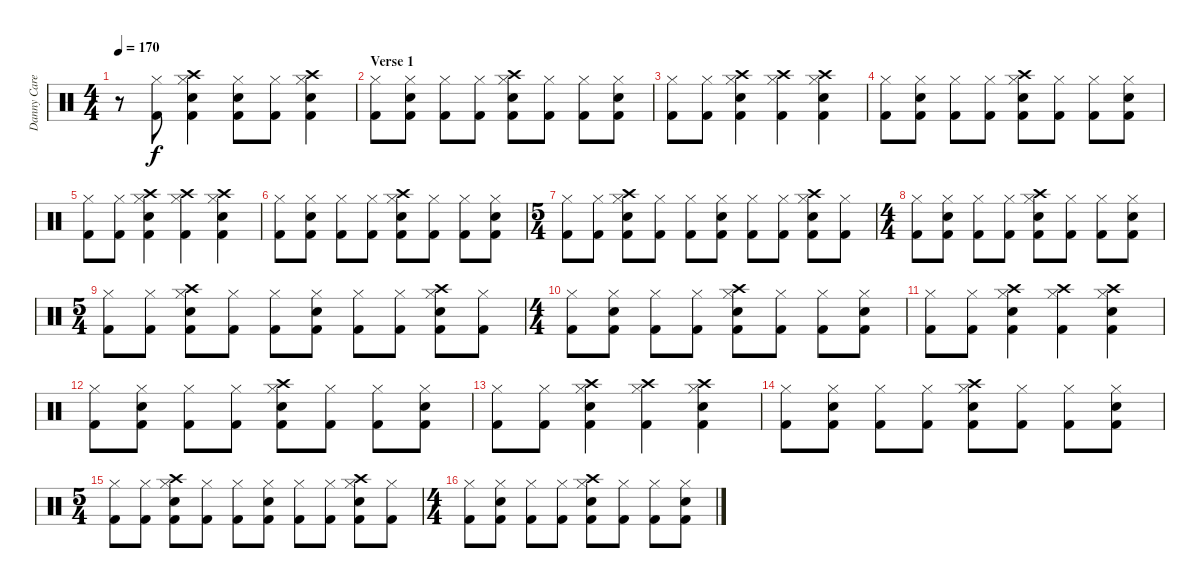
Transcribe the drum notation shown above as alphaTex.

\track ("Danny Carey" "Danny Care") {instrument percussion}
\staff {score}
\articulation defaults
\ts (4 4)
\tempo 170
\clef neutral
\ks c
r.8{dy f} ("Hi-Hat (closed)" "Kick (hit) 2").8 ("Crash high (hit)" "Hi-Hat (closed)" "Snare (hit) 2" "Kick (hit) 2").4 ("Hi-Hat (closed)" "Snare (hit) 2" "Kick (hit) 2").8 ("Hi-Hat (closed)" "Kick (hit) 2").8 ("Crash high (hit)" "Hi-Hat (closed)" "Snare (hit) 2" "Kick (hit) 2").4 |
\section ("" "Verse 1")
("Hi-Hat (closed)" "Kick (hit) 2").8 ("Hi-Hat (closed)" "Snare (hit) 2" "Kick (hit) 2").8 ("Hi-Hat (closed)" "Kick (hit) 2").8 ("Hi-Hat (closed)" "Kick (hit) 2").8 ("Crash high (hit)" "Hi-Hat (closed)" "Snare (hit) 2" "Kick (hit) 2").8 ("Hi-Hat (closed)" "Kick (hit) 2").8 ("Hi-Hat (closed)" "Kick (hit) 2").8 ("Hi-Hat (closed)" "Snare (hit) 2" "Kick (hit) 2").8 |
("Hi-Hat (closed)" "Kick (hit) 2").8 ("Hi-Hat (closed)" "Kick (hit) 2").8 ("Crash high (hit)" "Hi-Hat (closed)" "Snare (hit) 2" "Kick (hit) 2").4 ("Crash high (hit)" "Hi-Hat (closed)" "Kick (hit) 2").4 ("Crash high (hit)" "Hi-Hat (closed)" "Snare (hit) 2" "Kick (hit) 2").4 |
("Hi-Hat (closed)" "Kick (hit) 2").8 ("Hi-Hat (closed)" "Snare (hit) 2" "Kick (hit) 2").8 ("Hi-Hat (closed)" "Kick (hit) 2").8 ("Hi-Hat (closed)" "Kick (hit) 2").8 ("Crash high (hit)" "Hi-Hat (closed)" "Snare (hit) 2" "Kick (hit) 2").8 ("Hi-Hat (closed)" "Kick (hit) 2").8 ("Hi-Hat (closed)" "Kick (hit) 2").8 ("Hi-Hat (closed)" "Snare (hit) 2" "Kick (hit) 2").8 |
("Hi-Hat (closed)" "Kick (hit) 2").8 ("Hi-Hat (closed)" "Kick (hit) 2").8 ("Crash high (hit)" "Hi-Hat (closed)" "Snare (hit) 2" "Kick (hit) 2").4 ("Crash high (hit)" "Hi-Hat (closed)" "Kick (hit) 2").4 ("Crash high (hit)" "Hi-Hat (closed)" "Snare (hit) 2" "Kick (hit) 2").4 |
("Hi-Hat (closed)" "Kick (hit) 2").8 ("Hi-Hat (closed)" "Snare (hit) 2" "Kick (hit) 2").8 ("Hi-Hat (closed)" "Kick (hit) 2").8 ("Hi-Hat (closed)" "Kick (hit) 2").8 ("Crash high (hit)" "Hi-Hat (closed)" "Snare (hit) 2" "Kick (hit) 2").8 ("Hi-Hat (closed)" "Kick (hit) 2").8 ("Hi-Hat (closed)" "Kick (hit) 2").8 ("Hi-Hat (closed)" "Snare (hit) 2" "Kick (hit) 2").8 |
\ts (5 4)
("Hi-Hat (closed)" "Kick (hit) 2").8 ("Hi-Hat (closed)" "Kick (hit) 2").8 ("Crash high (hit)" "Hi-Hat (closed)" "Snare (hit) 2" "Kick (hit) 2").8 ("Hi-Hat (closed)" "Kick (hit) 2").8 ("Hi-Hat (closed)" "Kick (hit) 2").8 ("Hi-Hat (closed)" "Snare (hit) 2" "Kick (hit) 2").8 ("Hi-Hat (closed)" "Kick (hit) 2").8 ("Hi-Hat (closed)" "Kick (hit) 2").8 ("Crash high (hit)" "Hi-Hat (closed)" "Snare (hit) 2" "Kick (hit) 2").8 ("Hi-Hat (closed)" "Kick (hit) 2").8 |
\ts (4 4)
("Hi-Hat (closed)" "Kick (hit) 2").8 ("Hi-Hat (closed)" "Snare (hit) 2" "Kick (hit) 2").8 ("Hi-Hat (closed)" "Kick (hit) 2").8 ("Hi-Hat (closed)" "Kick (hit) 2").8 ("Crash high (hit)" "Hi-Hat (closed)" "Snare (hit) 2" "Kick (hit) 2").8 ("Hi-Hat (closed)" "Kick (hit) 2").8 ("Hi-Hat (closed)" "Kick (hit) 2").8 ("Hi-Hat (closed)" "Snare (hit) 2" "Kick (hit) 2").8 |
\ts (5 4)
("Hi-Hat (closed)" "Kick (hit) 2").8 ("Hi-Hat (closed)" "Kick (hit) 2").8 ("Crash high (hit)" "Hi-Hat (closed)" "Snare (hit) 2" "Kick (hit) 2").8 ("Hi-Hat (closed)" "Kick (hit) 2").8 ("Hi-Hat (closed)" "Kick (hit) 2").8 ("Hi-Hat (closed)" "Snare (hit) 2" "Kick (hit) 2").8 ("Hi-Hat (closed)" "Kick (hit) 2").8 ("Hi-Hat (closed)" "Kick (hit) 2").8 ("Crash high (hit)" "Hi-Hat (closed)" "Snare (hit) 2" "Kick (hit) 2").8 ("Hi-Hat (closed)" "Kick (hit) 2").8 |
\ts (4 4)
("Hi-Hat (closed)" "Kick (hit) 2").8 ("Hi-Hat (closed)" "Snare (hit) 2" "Kick (hit) 2").8 ("Hi-Hat (closed)" "Kick (hit) 2").8 ("Hi-Hat (closed)" "Kick (hit) 2").8 ("Crash high (hit)" "Hi-Hat (closed)" "Snare (hit) 2" "Kick (hit) 2").8 ("Hi-Hat (closed)" "Kick (hit) 2").8 ("Hi-Hat (closed)" "Kick (hit) 2").8 ("Hi-Hat (closed)" "Snare (hit) 2" "Kick (hit) 2").8 |
("Hi-Hat (closed)" "Kick (hit) 2").8 ("Hi-Hat (closed)" "Kick (hit) 2").8 ("Crash high (hit)" "Hi-Hat (closed)" "Snare (hit) 2" "Kick (hit) 2").4 ("Crash high (hit)" "Hi-Hat (closed)" "Kick (hit) 2").4 ("Crash high (hit)" "Hi-Hat (closed)" "Snare (hit) 2" "Kick (hit) 2").4 |
("Hi-Hat (closed)" "Kick (hit) 2").8 ("Hi-Hat (closed)" "Snare (hit) 2" "Kick (hit) 2").8 ("Hi-Hat (closed)" "Kick (hit) 2").8 ("Hi-Hat (closed)" "Kick (hit) 2").8 ("Crash high (hit)" "Hi-Hat (closed)" "Snare (hit) 2" "Kick (hit) 2").8 ("Hi-Hat (closed)" "Kick (hit) 2").8 ("Hi-Hat (closed)" "Kick (hit) 2").8 ("Hi-Hat (closed)" "Snare (hit) 2" "Kick (hit) 2").8 |
("Hi-Hat (closed)" "Kick (hit) 2").8 ("Hi-Hat (closed)" "Kick (hit) 2").8 ("Crash high (hit)" "Hi-Hat (closed)" "Snare (hit) 2" "Kick (hit) 2").4 ("Crash high (hit)" "Hi-Hat (closed)" "Kick (hit) 2").4 ("Crash high (hit)" "Hi-Hat (closed)" "Snare (hit) 2" "Kick (hit) 2").4 |
("Hi-Hat (closed)" "Kick (hit) 2").8 ("Hi-Hat (closed)" "Snare (hit) 2" "Kick (hit) 2").8 ("Hi-Hat (closed)" "Kick (hit) 2").8 ("Hi-Hat (closed)" "Kick (hit) 2").8 ("Crash high (hit)" "Hi-Hat (closed)" "Snare (hit) 2" "Kick (hit) 2").8 ("Hi-Hat (closed)" "Kick (hit) 2").8 ("Hi-Hat (closed)" "Kick (hit) 2").8 ("Hi-Hat (closed)" "Snare (hit) 2" "Kick (hit) 2").8 |
\ts (5 4)
("Hi-Hat (closed)" "Kick (hit) 2").8 ("Hi-Hat (closed)" "Kick (hit) 2").8 ("Crash high (hit)" "Hi-Hat (closed)" "Snare (hit) 2" "Kick (hit) 2").8 ("Hi-Hat (closed)" "Kick (hit) 2").8 ("Hi-Hat (closed)" "Kick (hit) 2").8 ("Hi-Hat (closed)" "Snare (hit) 2" "Kick (hit) 2").8 ("Hi-Hat (closed)" "Kick (hit) 2").8 ("Hi-Hat (closed)" "Kick (hit) 2").8 ("Crash high (hit)" "Hi-Hat (closed)" "Snare (hit) 2" "Kick (hit) 2").8 ("Hi-Hat (closed)" "Kick (hit) 2").8 |
\ts (4 4)
("Hi-Hat (closed)" "Kick (hit) 2").8 ("Hi-Hat (closed)" "Snare (hit) 2" "Kick (hit) 2").8 ("Hi-Hat (closed)" "Kick (hit) 2").8 ("Hi-Hat (closed)" "Kick (hit) 2").8 ("Crash high (hit)" "Hi-Hat (closed)" "Snare (hit) 2" "Kick (hit) 2").8 ("Hi-Hat (closed)" "Kick (hit) 2").8 ("Hi-Hat (closed)" "Kick (hit) 2").8 ("Hi-Hat (closed)" "Snare (hit) 2" "Kick (hit) 2").8
